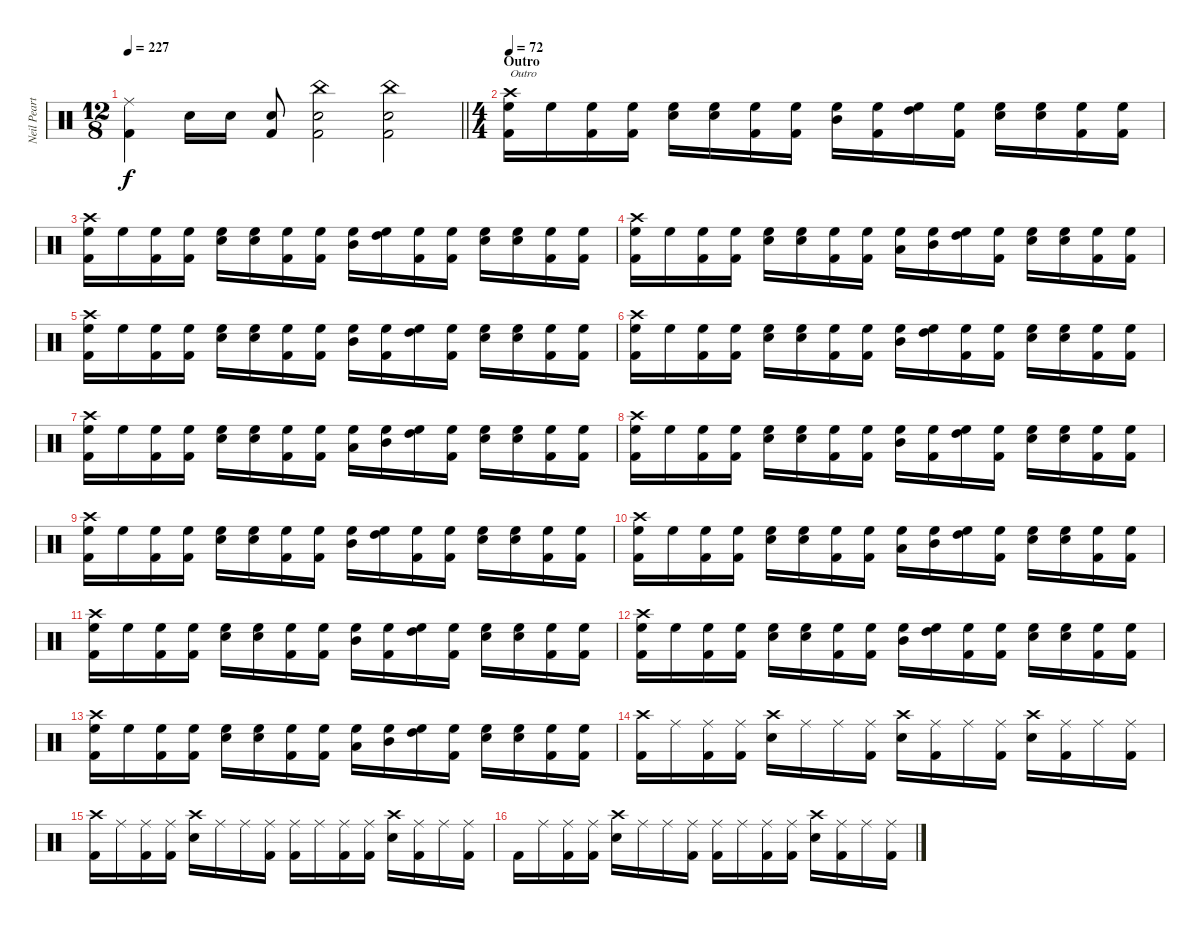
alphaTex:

\track ("Neil Peart" "Neil Peart") {instrument percussion}
\staff {score}
\articulation defaults
\ts (12 8)
\tempo 227
\clef neutral
\barLineRight lightlight
\ks c
("Ride (middle)" "Kick (hit) 2").4{dy f} "Electric Snare (hit)".16 "Electric Snare (hit)".16 ("Electric Snare (hit)" "Kick (hit) 2").8 ("Electric Snare (hit)" "China (hit)" "Kick (hit) 2").2 ("Electric Snare (hit)" "China (hit)" "Kick (hit) 2").2 |
\ts (4 4)
\section ("" "Outro")
\tempo 72
("Crash high (hit)" "Kick (hit) 2" "High Floor Tom (hit)").16{txt "Outro"} "High Floor Tom (hit)".16 ("Kick (hit) 2" "High Floor Tom (hit)").16 ("Kick (hit) 2" "High Floor Tom (hit)").16 ("Electric Snare (hit)" "High Floor Tom (hit)").16 ("Electric Snare (hit)" "High Floor Tom (hit)").16 ("Kick (hit) 2" "High Floor Tom (hit)").16 ("Kick (hit) 2" "High Floor Tom (hit)").16 ("High Floor Tom (hit)" "Mid Tom (hit)").16 ("Kick (hit) 2" "High Floor Tom (hit)").16 ("High Floor Tom (hit)" "High Tom (hit)").16 ("Kick (hit) 2" "High Floor Tom (hit)").16 ("Electric Snare (hit)" "High Floor Tom (hit)").16 ("Electric Snare (hit)" "High Floor Tom (hit)").16 ("Kick (hit) 2" "High Floor Tom (hit)").16 ("Kick (hit) 2" "High Floor Tom (hit)").16 |
("Crash high (hit)" "Kick (hit) 2" "High Floor Tom (hit)").16 "High Floor Tom (hit)".16 ("Kick (hit) 2" "High Floor Tom (hit)").16 ("Kick (hit) 2" "High Floor Tom (hit)").16 ("Electric Snare (hit)" "High Floor Tom (hit)").16 ("Electric Snare (hit)" "High Floor Tom (hit)").16 ("Kick (hit) 2" "High Floor Tom (hit)").16 ("Kick (hit) 2" "High Floor Tom (hit)").16 ("High Floor Tom (hit)" "Mid Tom (hit)").16 ("High Floor Tom (hit)" "High Tom (hit)").16 ("Kick (hit) 2" "High Floor Tom (hit)").16 ("Kick (hit) 2" "High Floor Tom (hit)").16 ("Electric Snare (hit)" "High Floor Tom (hit)").16 ("Electric Snare (hit)" "High Floor Tom (hit)").16 ("Kick (hit) 2" "High Floor Tom (hit)").16 ("Kick (hit) 2" "High Floor Tom (hit)").16 |
("Crash high (hit)" "Kick (hit) 2" "High Floor Tom (hit)").16 "High Floor Tom (hit)".16 ("Kick (hit) 2" "High Floor Tom (hit)").16 ("Kick (hit) 2" "High Floor Tom (hit)").16 ("Electric Snare (hit)" "High Floor Tom (hit)").16 ("Electric Snare (hit)" "High Floor Tom (hit)").16 ("Kick (hit) 2" "High Floor Tom (hit)").16 ("Kick (hit) 2" "High Floor Tom (hit)").16 ("High Floor Tom (hit)" "Low Tom (hit)").16 ("High Floor Tom (hit)" "Mid Tom (hit)").16 ("High Floor Tom (hit)" "High Tom (hit)").16 ("Kick (hit) 2" "High Floor Tom (hit)").16 ("Electric Snare (hit)" "High Floor Tom (hit)").16 ("Electric Snare (hit)" "High Floor Tom (hit)").16 ("Kick (hit) 2" "High Floor Tom (hit)").16 ("Kick (hit) 2" "High Floor Tom (hit)").16 |
("Crash high (hit)" "Kick (hit) 2" "High Floor Tom (hit)").16 "High Floor Tom (hit)".16 ("Kick (hit) 2" "High Floor Tom (hit)").16 ("Kick (hit) 2" "High Floor Tom (hit)").16 ("Electric Snare (hit)" "High Floor Tom (hit)").16 ("Electric Snare (hit)" "High Floor Tom (hit)").16 ("Kick (hit) 2" "High Floor Tom (hit)").16 ("Kick (hit) 2" "High Floor Tom (hit)").16 ("High Floor Tom (hit)" "Mid Tom (hit)").16 ("Kick (hit) 2" "High Floor Tom (hit)").16 ("High Floor Tom (hit)" "High Tom (hit)").16 ("Kick (hit) 2" "High Floor Tom (hit)").16 ("Electric Snare (hit)" "High Floor Tom (hit)").16 ("Electric Snare (hit)" "High Floor Tom (hit)").16 ("Kick (hit) 2" "High Floor Tom (hit)").16 ("Kick (hit) 2" "High Floor Tom (hit)").16 |
("Crash high (hit)" "Kick (hit) 2" "High Floor Tom (hit)").16 "High Floor Tom (hit)".16 ("Kick (hit) 2" "High Floor Tom (hit)").16 ("Kick (hit) 2" "High Floor Tom (hit)").16 ("Electric Snare (hit)" "High Floor Tom (hit)").16 ("Electric Snare (hit)" "High Floor Tom (hit)").16 ("Kick (hit) 2" "High Floor Tom (hit)").16 ("Kick (hit) 2" "High Floor Tom (hit)").16 ("High Floor Tom (hit)" "Mid Tom (hit)").16 ("High Floor Tom (hit)" "High Tom (hit)").16 ("Kick (hit) 2" "High Floor Tom (hit)").16 ("Kick (hit) 2" "High Floor Tom (hit)").16 ("Electric Snare (hit)" "High Floor Tom (hit)").16 ("Electric Snare (hit)" "High Floor Tom (hit)").16 ("Kick (hit) 2" "High Floor Tom (hit)").16 ("Kick (hit) 2" "High Floor Tom (hit)").16 |
("Crash high (hit)" "Kick (hit) 2" "High Floor Tom (hit)").16 "High Floor Tom (hit)".16 ("Kick (hit) 2" "High Floor Tom (hit)").16 ("Kick (hit) 2" "High Floor Tom (hit)").16 ("Electric Snare (hit)" "High Floor Tom (hit)").16 ("Electric Snare (hit)" "High Floor Tom (hit)").16 ("Kick (hit) 2" "High Floor Tom (hit)").16 ("Kick (hit) 2" "High Floor Tom (hit)").16 ("High Floor Tom (hit)" "Low Tom (hit)").16 ("High Floor Tom (hit)" "Mid Tom (hit)").16 ("High Floor Tom (hit)" "High Tom (hit)").16 ("Kick (hit) 2" "High Floor Tom (hit)").16 ("Electric Snare (hit)" "High Floor Tom (hit)").16 ("Electric Snare (hit)" "High Floor Tom (hit)").16 ("Kick (hit) 2" "High Floor Tom (hit)").16 ("Kick (hit) 2" "High Floor Tom (hit)").16 |
("Crash high (hit)" "Kick (hit) 2" "High Floor Tom (hit)").16 "High Floor Tom (hit)".16 ("Kick (hit) 2" "High Floor Tom (hit)").16 ("Kick (hit) 2" "High Floor Tom (hit)").16 ("Electric Snare (hit)" "High Floor Tom (hit)").16 ("Electric Snare (hit)" "High Floor Tom (hit)").16 ("Kick (hit) 2" "High Floor Tom (hit)").16 ("Kick (hit) 2" "High Floor Tom (hit)").16 ("High Floor Tom (hit)" "Mid Tom (hit)").16 ("Kick (hit) 2" "High Floor Tom (hit)").16 ("High Floor Tom (hit)" "High Tom (hit)").16 ("Kick (hit) 2" "High Floor Tom (hit)").16 ("Electric Snare (hit)" "High Floor Tom (hit)").16 ("Electric Snare (hit)" "High Floor Tom (hit)").16 ("Kick (hit) 2" "High Floor Tom (hit)").16 ("Kick (hit) 2" "High Floor Tom (hit)").16 |
("Crash high (hit)" "Kick (hit) 2" "High Floor Tom (hit)").16 "High Floor Tom (hit)".16 ("Kick (hit) 2" "High Floor Tom (hit)").16 ("Kick (hit) 2" "High Floor Tom (hit)").16 ("Electric Snare (hit)" "High Floor Tom (hit)").16 ("Electric Snare (hit)" "High Floor Tom (hit)").16 ("Kick (hit) 2" "High Floor Tom (hit)").16 ("Kick (hit) 2" "High Floor Tom (hit)").16 ("High Floor Tom (hit)" "Mid Tom (hit)").16 ("High Floor Tom (hit)" "High Tom (hit)").16 ("Kick (hit) 2" "High Floor Tom (hit)").16 ("Kick (hit) 2" "High Floor Tom (hit)").16 ("Electric Snare (hit)" "High Floor Tom (hit)").16 ("Electric Snare (hit)" "High Floor Tom (hit)").16 ("Kick (hit) 2" "High Floor Tom (hit)").16 ("Kick (hit) 2" "High Floor Tom (hit)").16 |
("Crash high (hit)" "Kick (hit) 2" "High Floor Tom (hit)").16 "High Floor Tom (hit)".16 ("Kick (hit) 2" "High Floor Tom (hit)").16 ("Kick (hit) 2" "High Floor Tom (hit)").16 ("Electric Snare (hit)" "High Floor Tom (hit)").16 ("Electric Snare (hit)" "High Floor Tom (hit)").16 ("Kick (hit) 2" "High Floor Tom (hit)").16 ("Kick (hit) 2" "High Floor Tom (hit)").16 ("High Floor Tom (hit)" "Low Tom (hit)").16 ("High Floor Tom (hit)" "Mid Tom (hit)").16 ("High Floor Tom (hit)" "High Tom (hit)").16 ("Kick (hit) 2" "High Floor Tom (hit)").16 ("Electric Snare (hit)" "High Floor Tom (hit)").16 ("Electric Snare (hit)" "High Floor Tom (hit)").16 ("Kick (hit) 2" "High Floor Tom (hit)").16 ("Kick (hit) 2" "High Floor Tom (hit)").16 |
("Crash high (hit)" "Kick (hit) 2" "High Floor Tom (hit)").16 "High Floor Tom (hit)".16 ("Kick (hit) 2" "High Floor Tom (hit)").16 ("Kick (hit) 2" "High Floor Tom (hit)").16 ("Electric Snare (hit)" "High Floor Tom (hit)").16 ("Electric Snare (hit)" "High Floor Tom (hit)").16 ("Kick (hit) 2" "High Floor Tom (hit)").16 ("Kick (hit) 2" "High Floor Tom (hit)").16 ("High Floor Tom (hit)" "Mid Tom (hit)").16 ("Kick (hit) 2" "High Floor Tom (hit)").16 ("High Floor Tom (hit)" "High Tom (hit)").16 ("Kick (hit) 2" "High Floor Tom (hit)").16 ("Electric Snare (hit)" "High Floor Tom (hit)").16 ("Electric Snare (hit)" "High Floor Tom (hit)").16 ("Kick (hit) 2" "High Floor Tom (hit)").16 ("Kick (hit) 2" "High Floor Tom (hit)").16 |
("Crash high (hit)" "Kick (hit) 2" "High Floor Tom (hit)").16 "High Floor Tom (hit)".16 ("Kick (hit) 2" "High Floor Tom (hit)").16 ("Kick (hit) 2" "High Floor Tom (hit)").16 ("Electric Snare (hit)" "High Floor Tom (hit)").16 ("Electric Snare (hit)" "High Floor Tom (hit)").16 ("Kick (hit) 2" "High Floor Tom (hit)").16 ("Kick (hit) 2" "High Floor Tom (hit)").16 ("High Floor Tom (hit)" "Mid Tom (hit)").16 ("High Floor Tom (hit)" "High Tom (hit)").16 ("Kick (hit) 2" "High Floor Tom (hit)").16 ("Kick (hit) 2" "High Floor Tom (hit)").16 ("Electric Snare (hit)" "High Floor Tom (hit)").16 ("Electric Snare (hit)" "High Floor Tom (hit)").16 ("Kick (hit) 2" "High Floor Tom (hit)").16 ("Kick (hit) 2" "High Floor Tom (hit)").16 |
("Crash high (hit)" "Kick (hit) 2" "High Floor Tom (hit)").16 "High Floor Tom (hit)".16 ("Kick (hit) 2" "High Floor Tom (hit)").16 ("Kick (hit) 2" "High Floor Tom (hit)").16 ("Electric Snare (hit)" "High Floor Tom (hit)").16 ("Electric Snare (hit)" "High Floor Tom (hit)").16 ("Kick (hit) 2" "High Floor Tom (hit)").16 ("Kick (hit) 2" "High Floor Tom (hit)").16 ("High Floor Tom (hit)" "Low Tom (hit)").16 ("High Floor Tom (hit)" "Mid Tom (hit)").16 ("High Floor Tom (hit)" "High Tom (hit)").16 ("Kick (hit) 2" "High Floor Tom (hit)").16 ("Electric Snare (hit)" "High Floor Tom (hit)").16 ("Electric Snare (hit)" "High Floor Tom (hit)").16 ("Kick (hit) 2" "High Floor Tom (hit)").16 ("Kick (hit) 2" "High Floor Tom (hit)").16 |
("Crash high (hit)" "Kick (hit) 2").16 "Ride (middle)".16 ("Ride (middle)" "Kick (hit) 2").16 ("Ride (middle)" "Kick (hit) 2").16 ("Electric Snare (hit)" "Crash high (hit)").16 "Ride (middle)".16 "Ride (middle)".16 ("Ride (middle)" "Kick (hit) 2").16 ("Electric Snare (hit)" "Crash high (hit)").16 ("Ride (middle)" "Kick (hit) 2").16 "Ride (middle)".16 ("Ride (middle)" "Kick (hit) 2").16 ("Electric Snare (hit)" "Crash high (hit)").16 ("Ride (middle)" "Kick (hit) 2").16 "Ride (middle)".16 ("Ride (middle)" "Kick (hit) 2").16 |
("Crash high (hit)" "Kick (hit) 2").16 "Ride (middle)".16 ("Ride (middle)" "Kick (hit) 2").16 ("Ride (middle)" "Kick (hit) 2").16 ("Electric Snare (hit)" "Crash high (hit)").16 "Ride (middle)".16 "Ride (middle)".16 ("Ride (middle)" "Kick (hit) 2").16 ("Ride (middle)" "Kick (hit) 2").16 "Ride (middle)".16 ("Ride (middle)" "Kick (hit) 2").16 ("Ride (middle)" "Kick (hit) 2").16 ("Electric Snare (hit)" "Crash high (hit)").16 ("Ride (middle)" "Kick (hit) 2").16 "Ride (middle)".16 ("Ride (middle)" "Kick (hit) 2").16 |
"Kick (hit) 2".16 "Ride (middle)".16 ("Ride (middle)" "Kick (hit) 2").16 ("Ride (middle)" "Kick (hit) 2").16 ("Electric Snare (hit)" "Crash high (hit)").16 "Ride (middle)".16 "Ride (middle)".16 ("Ride (middle)" "Kick (hit) 2").16 ("Ride (middle)" "Kick (hit) 2").16 "Ride (middle)".16 ("Ride (middle)" "Kick (hit) 2").16 ("Ride (middle)" "Kick (hit) 2").16 ("Electric Snare (hit)" "Crash high (hit)").16 ("Ride (middle)" "Kick (hit) 2").16 "Ride (middle)".16 ("Ride (middle)" "Kick (hit) 2").16
